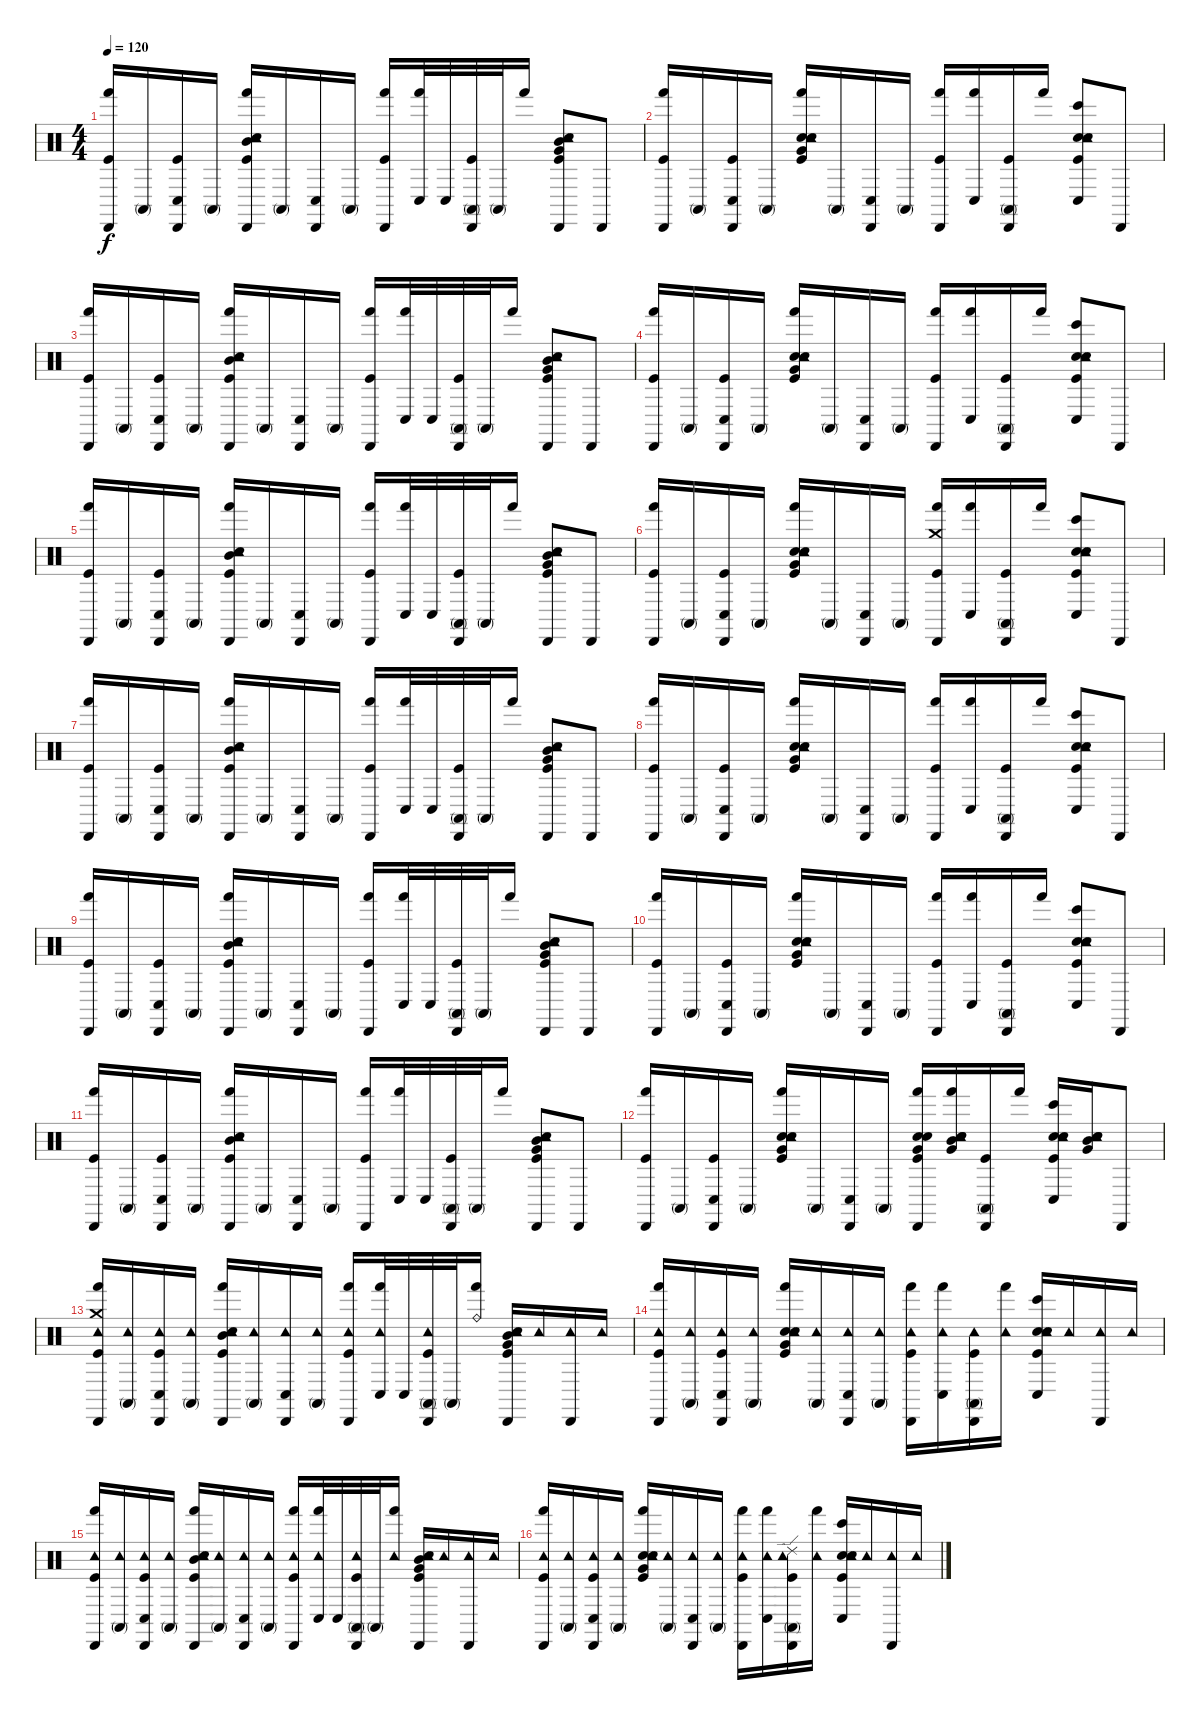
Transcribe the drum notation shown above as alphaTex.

\track "" {instrument percussion}
\staff {score}
\articulation defaults
\ts (4 4)
\tempo 120
\clef neutral
\ks c
("Hand (hit)" "Kick (hit)" "Cabasa (hit)").16{dy f} "Conga high (mute)".16 ("Conga low (hit)" "Kick (hit)" "Cabasa (hit)").16 "Conga high (mute)".16 ("Hand (hit)" "Kick (hit)" "Tambourine (hit)" "Snare (hit) 2" "Cabasa (hit)" "Mid Tom (hit)").16 "Conga high (mute)".16 ("Conga low (hit)" "Cabasa (hit)").16 "Conga high (mute)".16 ("Hand (hit)" "Kick (hit)" "Cabasa (hit)").16 ("Conga low (hit)" "Hand (hit)").32 "Conga low (hit)".32 ("Conga high (mute)" "Kick (hit)" "Cabasa (hit)").32 "Conga high (mute)".32 "Hand (hit)".16 ("Kick (hit)" "Snare (hit) 2" "Tambourine (hit)" "Cabasa (hit)" "Mid Tom (hit)" "Very Low Tom (hit)").8 "Cabasa (hit)".8 |
("Hand (hit)" "Kick (hit)" "Cabasa (hit)").16 "Conga high (mute)".16 ("Conga low (hit)" "Kick (hit)" "Cabasa (hit)").16 "Conga high (mute)".16 ("Hand (hit)" "Kick (hit)" "Snare (hit) 2" "Tambourine (hit)" "Electric Snare (hit)" "Very Low Tom (hit)").16 "Conga high (mute)".16 ("Conga low (hit)" "Cabasa (hit)").16 "Conga high (mute)".16 ("Hand (hit)" "Kick (hit)" "Cabasa (hit)").16 ("Conga low (hit)" "Hand (hit)").16 ("Conga high (mute)" "Kick (hit)" "Cabasa (hit)").16 "Hand (hit)".16 ("Kick (hit)" "Snare (hit) 2" "Tambourine (hit)" "Bongo High (hit)" "Conga low (hit)" "Electric Snare (hit)").8 "Cabasa (hit)".8 |
("Hand (hit)" "Kick (hit)" "Cabasa (hit)").16 "Conga high (mute)".16 ("Conga low (hit)" "Kick (hit)" "Cabasa (hit)").16 "Conga high (mute)".16 ("Hand (hit)" "Kick (hit)" "Tambourine (hit)" "Snare (hit) 2" "Cabasa (hit)" "Mid Tom (hit)").16 "Conga high (mute)".16 ("Conga low (hit)" "Cabasa (hit)").16 "Conga high (mute)".16 ("Hand (hit)" "Kick (hit)" "Cabasa (hit)").16 ("Conga low (hit)" "Hand (hit)").32 "Conga low (hit)".32 ("Conga high (mute)" "Kick (hit)" "Cabasa (hit)").32 "Conga high (mute)".32 "Hand (hit)".16 ("Kick (hit)" "Snare (hit) 2" "Tambourine (hit)" "Cabasa (hit)" "Mid Tom (hit)" "Very Low Tom (hit)").8 "Cabasa (hit)".8 |
("Hand (hit)" "Kick (hit)" "Cabasa (hit)").16 "Conga high (mute)".16 ("Conga low (hit)" "Kick (hit)" "Cabasa (hit)").16 "Conga high (mute)".16 ("Hand (hit)" "Kick (hit)" "Snare (hit) 2" "Tambourine (hit)" "Electric Snare (hit)" "Very Low Tom (hit)").16 "Conga high (mute)".16 ("Conga low (hit)" "Cabasa (hit)").16 "Conga high (mute)".16 ("Hand (hit)" "Kick (hit)" "Cabasa (hit)").16 ("Conga low (hit)" "Hand (hit)").16 ("Conga high (mute)" "Kick (hit)" "Cabasa (hit)").16 "Hand (hit)".16 ("Kick (hit)" "Snare (hit) 2" "Tambourine (hit)" "Bongo High (hit)" "Conga low (hit)" "Electric Snare (hit)").8 "Cabasa (hit)".8 |
("Hand (hit)" "Kick (hit)" "Cabasa (hit)").16 "Conga high (mute)".16 ("Conga low (hit)" "Kick (hit)" "Cabasa (hit)").16 "Conga high (mute)".16 ("Hand (hit)" "Kick (hit)" "Tambourine (hit)" "Snare (hit) 2" "Cabasa (hit)" "Mid Tom (hit)").16 "Conga high (mute)".16 ("Conga low (hit)" "Cabasa (hit)").16 "Conga high (mute)".16 ("Hand (hit)" "Kick (hit)" "Cabasa (hit)").16 ("Conga low (hit)" "Hand (hit)").32 "Conga low (hit)".32 ("Conga high (mute)" "Kick (hit)" "Cabasa (hit)").32 "Conga high (mute)".32 "Hand (hit)".16 ("Kick (hit)" "Snare (hit) 2" "Tambourine (hit)" "Cabasa (hit)" "Mid Tom (hit)" "Very Low Tom (hit)").8 "Cabasa (hit)".8 |
("Hand (hit)" "Kick (hit)" "Cabasa (hit)").16 "Conga high (mute)".16 ("Conga low (hit)" "Kick (hit)" "Cabasa (hit)").16 "Conga high (mute)".16 ("Hand (hit)" "Kick (hit)" "Snare (hit) 2" "Tambourine (hit)" "Electric Snare (hit)" "Very Low Tom (hit)").16 "Conga high (mute)".16 ("Conga low (hit)" "Cabasa (hit)").16 "Conga high (mute)".16 ("Hand (hit)" "Kick (hit)" "Cabasa (hit)" "Crash medium (hit)").16 ("Conga low (hit)" "Hand (hit)").16 ("Conga high (mute)" "Kick (hit)" "Cabasa (hit)").16 "Hand (hit)".16 ("Kick (hit)" "Snare (hit) 2" "Tambourine (hit)" "Bongo High (hit)" "Conga low (hit)" "Electric Snare (hit)").8 "Cabasa (hit)".8 |
("Hand (hit)" "Kick (hit)" "Cabasa (hit)").16 "Conga high (mute)".16 ("Conga low (hit)" "Kick (hit)" "Cabasa (hit)").16 "Conga high (mute)".16 ("Hand (hit)" "Kick (hit)" "Tambourine (hit)" "Snare (hit) 2" "Cabasa (hit)" "Mid Tom (hit)").16 "Conga high (mute)".16 ("Conga low (hit)" "Cabasa (hit)").16 "Conga high (mute)".16 ("Hand (hit)" "Kick (hit)" "Cabasa (hit)").16 ("Conga low (hit)" "Hand (hit)").32 "Conga low (hit)".32 ("Conga high (mute)" "Kick (hit)" "Cabasa (hit)").32 "Conga high (mute)".32 "Hand (hit)".16 ("Kick (hit)" "Snare (hit) 2" "Tambourine (hit)" "Cabasa (hit)" "Mid Tom (hit)" "Very Low Tom (hit)").8 "Cabasa (hit)".8 |
("Hand (hit)" "Kick (hit)" "Cabasa (hit)").16 "Conga high (mute)".16 ("Conga low (hit)" "Kick (hit)" "Cabasa (hit)").16 "Conga high (mute)".16 ("Hand (hit)" "Kick (hit)" "Snare (hit) 2" "Tambourine (hit)" "Electric Snare (hit)" "Very Low Tom (hit)").16 "Conga high (mute)".16 ("Conga low (hit)" "Cabasa (hit)").16 "Conga high (mute)".16 ("Hand (hit)" "Kick (hit)" "Cabasa (hit)").16 ("Conga low (hit)" "Hand (hit)").16 ("Conga high (mute)" "Kick (hit)" "Cabasa (hit)").16 "Hand (hit)".16 ("Kick (hit)" "Snare (hit) 2" "Tambourine (hit)" "Bongo High (hit)" "Conga low (hit)" "Electric Snare (hit)").8 "Cabasa (hit)".8 |
("Hand (hit)" "Kick (hit)" "Cabasa (hit)").16 "Conga high (mute)".16 ("Conga low (hit)" "Kick (hit)" "Cabasa (hit)").16 "Conga high (mute)".16 ("Hand (hit)" "Kick (hit)" "Tambourine (hit)" "Snare (hit) 2" "Cabasa (hit)" "Mid Tom (hit)").16 "Conga high (mute)".16 ("Conga low (hit)" "Cabasa (hit)").16 "Conga high (mute)".16 ("Hand (hit)" "Kick (hit)" "Cabasa (hit)").16 ("Conga low (hit)" "Hand (hit)").32 "Conga low (hit)".32 ("Conga high (mute)" "Kick (hit)" "Cabasa (hit)").32 "Conga high (mute)".32 "Hand (hit)".16 ("Kick (hit)" "Snare (hit) 2" "Tambourine (hit)" "Cabasa (hit)" "Mid Tom (hit)" "Very Low Tom (hit)").8 "Cabasa (hit)".8 |
("Hand (hit)" "Kick (hit)" "Cabasa (hit)").16 "Conga high (mute)".16 ("Conga low (hit)" "Kick (hit)" "Cabasa (hit)").16 "Conga high (mute)".16 ("Hand (hit)" "Kick (hit)" "Snare (hit) 2" "Tambourine (hit)" "Electric Snare (hit)" "Very Low Tom (hit)").16 "Conga high (mute)".16 ("Conga low (hit)" "Cabasa (hit)").16 "Conga high (mute)".16 ("Hand (hit)" "Kick (hit)" "Cabasa (hit)").16 ("Conga low (hit)" "Hand (hit)").16 ("Conga high (mute)" "Kick (hit)" "Cabasa (hit)").16 "Hand (hit)".16 ("Kick (hit)" "Snare (hit) 2" "Tambourine (hit)" "Bongo High (hit)" "Conga low (hit)" "Electric Snare (hit)").8 "Cabasa (hit)".8 |
("Hand (hit)" "Kick (hit)" "Cabasa (hit)").16 "Conga high (mute)".16 ("Conga low (hit)" "Kick (hit)" "Cabasa (hit)").16 "Conga high (mute)".16 ("Hand (hit)" "Kick (hit)" "Tambourine (hit)" "Snare (hit) 2" "Cabasa (hit)" "Mid Tom (hit)").16 "Conga high (mute)".16 ("Conga low (hit)" "Cabasa (hit)").16 "Conga high (mute)".16 ("Hand (hit)" "Kick (hit)" "Cabasa (hit)").16 ("Conga low (hit)" "Hand (hit)").32 "Conga low (hit)".32 ("Conga high (mute)" "Kick (hit)" "Cabasa (hit)").32 "Conga high (mute)".32 "Hand (hit)".16 ("Kick (hit)" "Snare (hit) 2" "Tambourine (hit)" "Cabasa (hit)" "Mid Tom (hit)" "Very Low Tom (hit)").8 "Cabasa (hit)".8 |
("Hand (hit)" "Kick (hit)" "Cabasa (hit)").16 "Conga high (mute)".16 ("Conga low (hit)" "Kick (hit)" "Cabasa (hit)").16 "Conga high (mute)".16 ("Hand (hit)" "Kick (hit)" "Snare (hit) 2" "Tambourine (hit)" "Electric Snare (hit)" "Very Low Tom (hit)").16 "Conga high (mute)".16 ("Conga low (hit)" "Cabasa (hit)").16 "Conga high (mute)".16 ("Hand (hit)" "Kick (hit)" "Cabasa (hit)" "Electric Snare (hit)" "Snare (hit) 2" "Very Low Tom (hit)").16 ("Hand (hit)" "Snare (hit) 2" "Electric Snare (hit)" "Very Low Tom (hit)" "Mid Tom (hit)" "Tambourine (hit)").16 ("Conga high (mute)" "Kick (hit)" "Cabasa (hit)").16 "Hand (hit)".16 ("Kick (hit)" "Snare (hit) 2" "Tambourine (hit)" "Bongo High (hit)" "Conga low (hit)" "Electric Snare (hit)").16 ("Snare (hit) 2" "Electric Snare (hit)" "Very Low Tom (hit)" "Mid Tom (hit)" "Tambourine (hit)").16 "Cabasa (hit)".8 |
("Hand (hit)" "Kick (hit)" "Cabasa (hit)" "Crash medium (hit)" "Tambourine (hit)").16 ("Conga high (mute)" "Tambourine (hit)").16 ("Conga low (hit)" "Kick (hit)" "Cabasa (hit)" "Tambourine (hit)").16 ("Conga high (mute)" "Tambourine (hit)").16 ("Hand (hit)" "Kick (hit)" "Tambourine (hit)" "Snare (hit) 2" "Cabasa (hit)" "Mid Tom (hit)").16 ("Conga high (mute)" "Tambourine (hit)").16 ("Conga low (hit)" "Cabasa (hit)" "Tambourine (hit)").16 ("Conga high (mute)" "Tambourine (hit)").16 ("Hand (hit)" "Kick (hit)" "Cabasa (hit)" "Tambourine (hit)").16 ("Conga low (hit)" "Hand (hit)" "Tambourine (hit)").32 "Conga low (hit)".32 ("Conga high (mute)" "Kick (hit)" "Cabasa (hit)" "Tambourine (hit)").32 "Conga high (mute)".32 ("Hand (hit)" "Ride (bell)").16 ("Kick (hit)" "Snare (hit) 2" "Tambourine (hit)" "Cabasa (hit)" "Mid Tom (hit)" "Very Low Tom (hit)").16 "Tambourine (hit)".16 ("Cabasa (hit)" "Tambourine (hit)").16 "Tambourine (hit)".16 |
("Hand (hit)" "Kick (hit)" "Cabasa (hit)" "Tambourine (hit)").16 ("Conga high (mute)" "Tambourine (hit)").16 ("Conga low (hit)" "Kick (hit)" "Cabasa (hit)" "Tambourine (hit)").16 ("Conga high (mute)" "Tambourine (hit)").16 ("Hand (hit)" "Kick (hit)" "Snare (hit) 2" "Tambourine (hit)" "Electric Snare (hit)" "Very Low Tom (hit)").16 ("Conga high (mute)" "Tambourine (hit)").16 ("Conga low (hit)" "Cabasa (hit)" "Tambourine (hit)").16 ("Conga high (mute)" "Tambourine (hit)").16 ("Hand (hit)" "Kick (hit)" "Cabasa (hit)" "Tambourine (hit)").16 ("Conga low (hit)" "Hand (hit)" "Tambourine (hit)").16 ("Conga high (mute)" "Kick (hit)" "Cabasa (hit)" "Tambourine (hit)").16 ("Hand (hit)" "Tambourine (hit)").16 ("Kick (hit)" "Snare (hit) 2" "Tambourine (hit)" "Bongo High (hit)" "Conga low (hit)" "Electric Snare (hit)").16 "Tambourine (hit)".16 ("Cabasa (hit)" "Tambourine (hit)").16 "Tambourine (hit)".16 |
("Hand (hit)" "Kick (hit)" "Cabasa (hit)" "Tambourine (hit)").16 ("Conga high (mute)" "Tambourine (hit)").16 ("Conga low (hit)" "Kick (hit)" "Cabasa (hit)" "Tambourine (hit)").16 ("Conga high (mute)" "Tambourine (hit)").16 ("Hand (hit)" "Kick (hit)" "Tambourine (hit)" "Snare (hit) 2" "Cabasa (hit)" "Mid Tom (hit)").16 ("Conga high (mute)" "Tambourine (hit)").16 ("Conga low (hit)" "Cabasa (hit)" "Tambourine (hit)").16 ("Conga high (mute)" "Tambourine (hit)").16 ("Hand (hit)" "Kick (hit)" "Cabasa (hit)" "Tambourine (hit)").16 ("Conga low (hit)" "Hand (hit)" "Tambourine (hit)").32 "Conga low (hit)".32 ("Conga high (mute)" "Kick (hit)" "Cabasa (hit)" "Tambourine (hit)").32 "Conga high (mute)".32 ("Hand (hit)" "Tambourine (hit)").16 ("Kick (hit)" "Snare (hit) 2" "Tambourine (hit)" "Cabasa (hit)" "Mid Tom (hit)" "Very Low Tom (hit)").16 "Tambourine (hit)".16 ("Cabasa (hit)" "Tambourine (hit)").16 "Tambourine (hit)".16 |
("Hand (hit)" "Kick (hit)" "Cabasa (hit)" "Tambourine (hit)").16 ("Conga high (mute)" "Tambourine (hit)").16 ("Conga low (hit)" "Kick (hit)" "Cabasa (hit)" "Tambourine (hit)").16 ("Conga high (mute)" "Tambourine (hit)").16 ("Hand (hit)" "Kick (hit)" "Snare (hit) 2" "Tambourine (hit)" "Electric Snare (hit)" "Very Low Tom (hit)").16 ("Conga high (mute)" "Tambourine (hit)").16 ("Conga low (hit)" "Cabasa (hit)" "Tambourine (hit)").16 ("Conga high (mute)" "Tambourine (hit)").16 ("Hand (hit)" "Kick (hit)" "Cabasa (hit)" "Tambourine (hit)").16 ("Conga low (hit)" "Hand (hit)" "Tambourine (hit)").16 ("Conga high (mute)" "Kick (hit)" "Cabasa (hit)" "Ride (edge) 2" "Tambourine (hit)").16 ("Hand (hit)" "Tambourine (hit)").16 ("Kick (hit)" "Snare (hit) 2" "Tambourine (hit)" "Bongo High (hit)" "Conga low (hit)" "Electric Snare (hit)").16 "Tambourine (hit)".16 ("Cabasa (hit)" "Tambourine (hit)").16 "Tambourine (hit)".16
